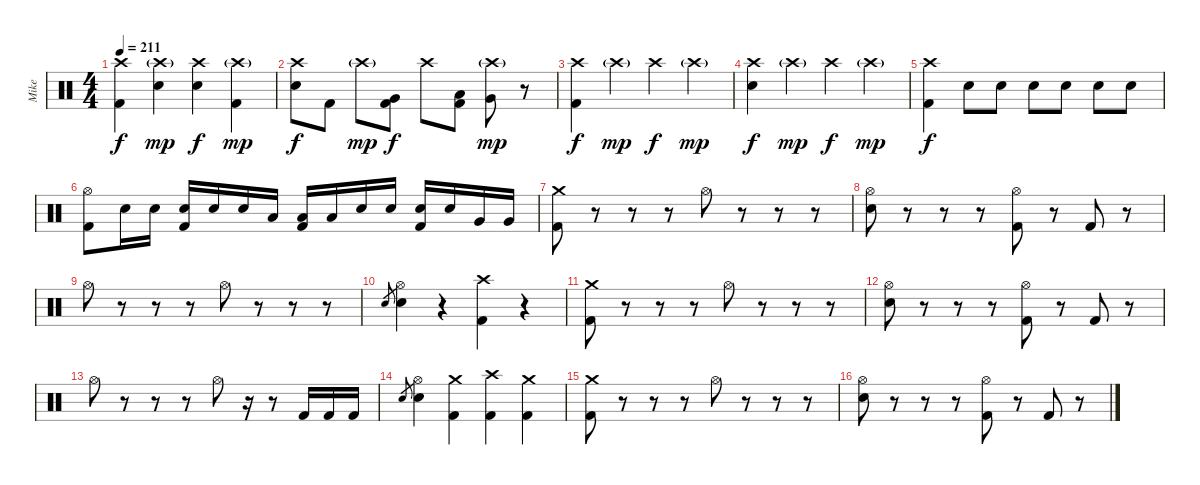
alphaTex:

\track ("Mike" "Mike") {instrument percussion}
\staff {score}
\articulation defaults
\ts (4 4)
\tempo 211
\clef neutral
\ks c
("Crash high (hit)" "Kick (hit) 2").4{dy f} ("Crash high (hit)"{g} "Electric Snare (hit)").4{dy mp} ("Crash high (hit)" "Electric Snare (hit)").4{dy f} ("Crash high (hit)"{g} "Kick (hit) 2").4{dy mp} |
("Crash high (hit)" "Electric Snare (hit)").8{dy f} "Kick (hit) 2".8 "Crash high (hit)"{g}.8{dy mp} ("Very Low Tom (hit)" "Kick (hit) 2").8{dy f} "Crash high (hit)".8 ("Low Tom (hit)" "Kick (hit) 2").8 ("Crash high (hit)"{g} "Very Low Tom (hit)").8{dy mp} r.8 |
("Crash high (hit)" "Kick (hit) 2").4{dy f} "Crash high (hit)"{g}.4{dy mp} "Crash high (hit)".4{dy f} "Crash high (hit)"{g}.4{dy mp} |
("Crash high (hit)" "Electric Snare (hit)").4{dy f} "Crash high (hit)"{g}.4{dy mp} "Crash high (hit)".4{dy f} "Crash high (hit)"{g}.4{dy mp} |
("Crash high (hit)" "Kick (hit) 2").4{dy f} "Electric Snare (hit)".8 "Electric Snare (hit)".8 "Electric Snare (hit)".8 "Electric Snare (hit)".8 "Electric Snare (hit)".8 "Electric Snare (hit)".8 |
("Hi-Hat (open)" "Kick (hit) 2").8 "Electric Snare (hit)".16 "Electric Snare (hit)".16 ("Electric Snare (hit)" "Kick (hit) 2").16 "Electric Snare (hit)".16 "Electric Snare (hit)".16 "Low Tom (hit)".16 ("Low Tom (hit)" "Kick (hit) 2").16 "Low Tom (hit)".16 "Electric Snare (hit)".16 "Electric Snare (hit)".16 ("Electric Snare (hit)" "Kick (hit) 2").16 "Electric Snare (hit)".16 "Very Low Tom (hit)".16 "Very Low Tom (hit)".16 |
("Crash medium (hit)" "Kick (hit) 2").8 r.8 r.8 r.8 "Hi-Hat (open)".8 r.8 r.8 r.8 |
("Hi-Hat (open)" "Electric Snare (hit)").8 r.8 r.8 r.8 ("Hi-Hat (open)" "Kick (hit) 2").8 r.8 "Kick (hit) 2".8 r.8 |
"Hi-Hat (open)".8 r.8 r.8 r.8 "Hi-Hat (open)".8 r.8 r.8 r.8 |
"Electric Snare (hit)".8{gr} ("Hi-Hat (open)" "Electric Snare (hit)").4 r.4 ("Crash high (hit)" "Kick (hit) 2").4 r.4 |
("Crash medium (hit)" "Kick (hit) 2").8 r.8 r.8 r.8 "Hi-Hat (open)".8 r.8 r.8 r.8 |
("Hi-Hat (open)" "Electric Snare (hit)").8 r.8 r.8 r.8 ("Hi-Hat (open)" "Kick (hit) 2").8 r.8 "Kick (hit) 2".8 r.8 |
"Hi-Hat (open)".8 r.8 r.8 r.8 "Hi-Hat (open)".8 r.16 r.8 "Kick (hit) 2".16 "Kick (hit) 2".16 "Kick (hit) 2".16 |
"Electric Snare (hit)".8{gr} ("Hi-Hat (open)" "Electric Snare (hit)").4 ("Crash medium (hit)" "Kick (hit) 2").4 ("Crash high (hit)" "Kick (hit) 2").4 ("Crash medium (hit)" "Kick (hit) 2").4 |
("Crash medium (hit)" "Kick (hit) 2").8 r.8 r.8 r.8 "Hi-Hat (open)".8 r.8 r.8 r.8 |
("Hi-Hat (open)" "Electric Snare (hit)").8 r.8 r.8 r.8 ("Hi-Hat (open)" "Kick (hit) 2").8 r.8 "Kick (hit) 2".8 r.8
